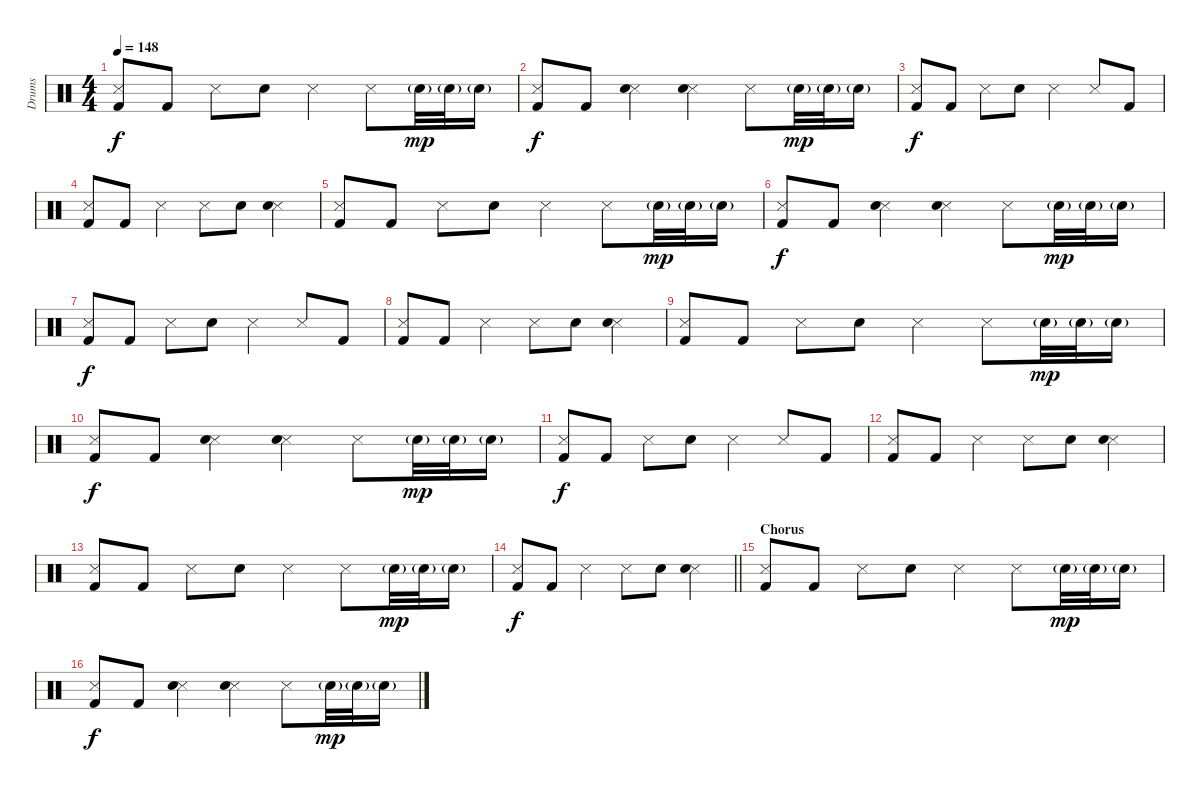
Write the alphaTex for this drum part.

\track ("Drums" "Drums") {instrument percussion}
\staff {score}
\articulation defaults
\ts (4 4)
\tempo 148
\clef neutral
\ks c
("Snare (side stick) 3" "Kick (hit) 2").8{dy f} "Kick (hit) 2".8 "Snare (side stick) 3".8 "Electric Snare (hit)".8 "Snare (side stick) 3".4 "Snare (side stick) 3".8 "Electric Snare (hit)"{g}.32{dy mp} "Electric Snare (hit)"{g}.32 "Electric Snare (hit)"{g}.16 |
("Snare (side stick) 3" "Kick (hit) 2").8{dy f} "Kick (hit) 2".8 ("Snare (side stick) 3" "Electric Snare (hit)").4 ("Snare (side stick) 3" "Electric Snare (hit)").4 "Snare (side stick) 3".8 "Electric Snare (hit)"{g}.32{dy mp} "Electric Snare (hit)"{g}.32 "Electric Snare (hit)"{g}.16 |
("Snare (side stick) 3" "Kick (hit) 2").8{dy f} "Kick (hit) 2".8 "Snare (side stick) 3".8 "Electric Snare (hit)".8 "Snare (side stick) 3".4 "Snare (side stick) 3".8 "Kick (hit) 2".8 |
("Snare (side stick) 3" "Kick (hit) 2").8 "Kick (hit) 2".8 "Snare (side stick) 3".4 "Snare (side stick) 3".8 "Electric Snare (hit)".8 ("Snare (side stick) 3" "Electric Snare (hit)").4 |
("Snare (side stick) 3" "Kick (hit) 2").8 "Kick (hit) 2".8 "Snare (side stick) 3".8 "Electric Snare (hit)".8 "Snare (side stick) 3".4 "Snare (side stick) 3".8 "Electric Snare (hit)"{g}.32{dy mp} "Electric Snare (hit)"{g}.32 "Electric Snare (hit)"{g}.16 |
("Snare (side stick) 3" "Kick (hit) 2").8{dy f} "Kick (hit) 2".8 ("Snare (side stick) 3" "Electric Snare (hit)").4 ("Snare (side stick) 3" "Electric Snare (hit)").4 "Snare (side stick) 3".8 "Electric Snare (hit)"{g}.32{dy mp} "Electric Snare (hit)"{g}.32 "Electric Snare (hit)"{g}.16 |
("Snare (side stick) 3" "Kick (hit) 2").8{dy f} "Kick (hit) 2".8 "Snare (side stick) 3".8 "Electric Snare (hit)".8 "Snare (side stick) 3".4 "Snare (side stick) 3".8 "Kick (hit) 2".8 |
("Snare (side stick) 3" "Kick (hit) 2").8 "Kick (hit) 2".8 "Snare (side stick) 3".4 "Snare (side stick) 3".8 "Electric Snare (hit)".8 ("Snare (side stick) 3" "Electric Snare (hit)").4 |
("Snare (side stick) 3" "Kick (hit) 2").8 "Kick (hit) 2".8 "Snare (side stick) 3".8 "Electric Snare (hit)".8 "Snare (side stick) 3".4 "Snare (side stick) 3".8 "Electric Snare (hit)"{g}.32{dy mp} "Electric Snare (hit)"{g}.32 "Electric Snare (hit)"{g}.16 |
("Snare (side stick) 3" "Kick (hit) 2").8{dy f} "Kick (hit) 2".8 ("Snare (side stick) 3" "Electric Snare (hit)").4 ("Snare (side stick) 3" "Electric Snare (hit)").4 "Snare (side stick) 3".8 "Electric Snare (hit)"{g}.32{dy mp} "Electric Snare (hit)"{g}.32 "Electric Snare (hit)"{g}.16 |
("Snare (side stick) 3" "Kick (hit) 2").8{dy f} "Kick (hit) 2".8 "Snare (side stick) 3".8 "Electric Snare (hit)".8 "Snare (side stick) 3".4 "Snare (side stick) 3".8 "Kick (hit) 2".8 |
("Snare (side stick) 3" "Kick (hit) 2").8 "Kick (hit) 2".8 "Snare (side stick) 3".4 "Snare (side stick) 3".8 "Electric Snare (hit)".8 ("Snare (side stick) 3" "Electric Snare (hit)").4 |
("Snare (side stick) 3" "Kick (hit) 2").8 "Kick (hit) 2".8 "Snare (side stick) 3".8 "Electric Snare (hit)".8 "Snare (side stick) 3".4 "Snare (side stick) 3".8 "Electric Snare (hit)"{g}.32{dy mp} "Electric Snare (hit)"{g}.32 "Electric Snare (hit)"{g}.16 |
\barLineRight lightlight
("Snare (side stick) 3" "Kick (hit) 2").8{dy f} "Kick (hit) 2".8 "Snare (side stick) 3".4 "Snare (side stick) 3".8 "Electric Snare (hit)".8 ("Snare (side stick) 3" "Electric Snare (hit)").4 |
\section ("" "Chorus")
("Snare (side stick) 3" "Kick (hit) 2").8 "Kick (hit) 2".8 "Snare (side stick) 3".8 "Electric Snare (hit)".8 "Snare (side stick) 3".4 "Snare (side stick) 3".8 "Electric Snare (hit)"{g}.32{dy mp} "Electric Snare (hit)"{g}.32 "Electric Snare (hit)"{g}.16 |
("Snare (side stick) 3" "Kick (hit) 2").8{dy f} "Kick (hit) 2".8 ("Snare (side stick) 3" "Electric Snare (hit)").4 ("Snare (side stick) 3" "Electric Snare (hit)").4 "Snare (side stick) 3".8 "Electric Snare (hit)"{g}.32{dy mp} "Electric Snare (hit)"{g}.32 "Electric Snare (hit)"{g}.16
